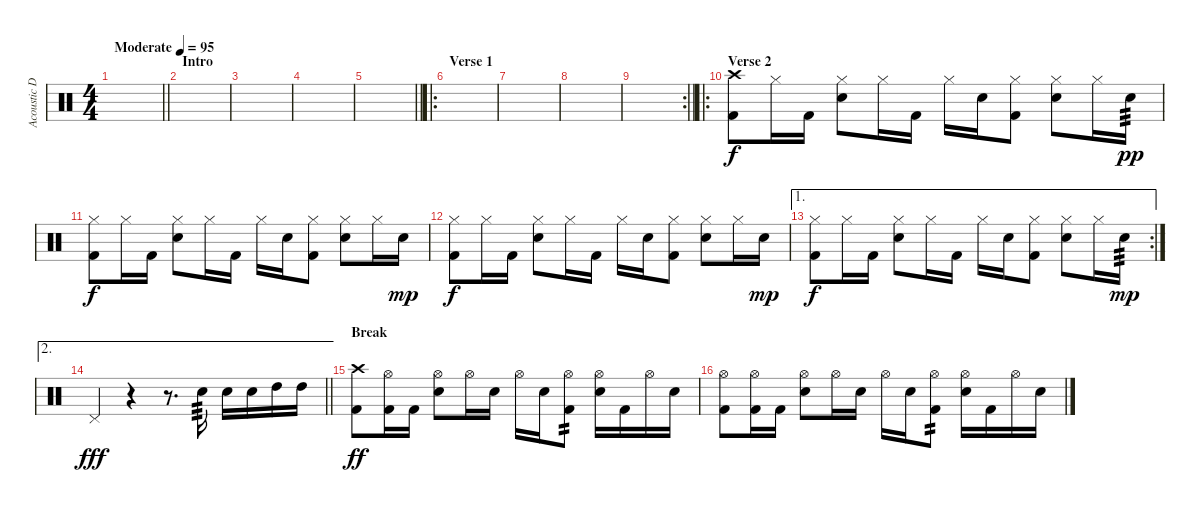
\track ("Acoustic Drums" "Acoustic D") {instrument percussion}
\staff {score}
\articulation defaults
\ts (4 4)
\tempo (95 "Moderate")
\clef neutral
\barLineRight lightlight
\ks c
|
\section ("" "Intro")
|
|
|
\barLineRight lightlight
|
\ro
\section ("" "Verse 1")
|
|
|
\rc 2
\barLineRight lightlight
|
\ro
\section ("" "Verse 2")
("Crash high (hit)" "Kick (hit) 2").8 "Hi-Hat (closed)".16 "Kick (hit) 2".16 ("Hi-Hat (closed)" "Electric Snare (hit)").8 "Hi-Hat (closed)".16 "Kick (hit) 2".16 "Hi-Hat (closed)".16 "Electric Snare (hit)".16 ("Hi-Hat (closed)" "Kick (hit) 2").8 ("Hi-Hat (closed)" "Electric Snare (hit)").8 "Hi-Hat (closed)".16 "Electric Snare (hit)".16{tp 3 dy pp} |
("Hi-Hat (closed)" "Kick (hit) 2").8{dy f} "Hi-Hat (closed)".16 "Kick (hit) 2".16 ("Hi-Hat (closed)" "Electric Snare (hit)").8 "Hi-Hat (closed)".16 "Kick (hit) 2".16 "Hi-Hat (closed)".16 "Electric Snare (hit)".16 ("Hi-Hat (closed)" "Kick (hit) 2").8 ("Hi-Hat (closed)" "Electric Snare (hit)").8 "Hi-Hat (closed)".16 "Electric Snare (hit)".16{dy mp} |
("Hi-Hat (closed)" "Kick (hit) 2").8{dy f} "Hi-Hat (closed)".16 "Kick (hit) 2".16 ("Hi-Hat (closed)" "Electric Snare (hit)").8 "Hi-Hat (closed)".16 "Kick (hit) 2".16 "Hi-Hat (closed)".16 "Electric Snare (hit)".16 ("Hi-Hat (closed)" "Kick (hit) 2").8 ("Hi-Hat (closed)" "Electric Snare (hit)").8 "Hi-Hat (closed)".16 "Electric Snare (hit)".16{dy mp} |
\ae 1
\rc 2
("Hi-Hat (closed)" "Kick (hit) 2").8{dy f} "Hi-Hat (closed)".16 "Kick (hit) 2".16 ("Hi-Hat (closed)" "Electric Snare (hit)").8 "Hi-Hat (closed)".16 "Kick (hit) 2".16 "Hi-Hat (closed)".16 "Electric Snare (hit)".16 ("Hi-Hat (closed)" "Kick (hit) 2").8 ("Hi-Hat (closed)" "Electric Snare (hit)").8 "Hi-Hat (closed)".16 "Electric Snare (hit)".16{tp 3 dy mp} |
\ae 2
\barLineRight lightlight "Pedal Hi-Hat (hit)".4{dy fff}
r.4 r.8{d} "Snare (hit) 2".16{tp 3} "Snare (hit) 2".16 "Snare (hit) 2".16 "High Tom (hit)".16 "High Tom (hit)".16 |
\section ("" "Break")
("Crash high (hit)" "Kick (hit) 2").8{dy ff} ("Hi-Hat (open)" "Kick (hit) 2").16 "Kick (hit) 2".16 ("Hi-Hat (open)" "Electric Snare (hit)").8 "Hi-Hat (open)".16 "Electric Snare (hit)".16 "Hi-Hat (open)".16 "Electric Snare (hit)".16 ("Hi-Hat (open)" "Kick (hit) 2").8{tp 2} ("Hi-Hat (open)" "Electric Snare (hit)").16 "Kick (hit) 2".16 "Hi-Hat (open)".16 "Electric Snare (hit)".16 |
("Hi-Hat (open)" "Kick (hit) 2").8 ("Hi-Hat (open)" "Kick (hit) 2").16 "Kick (hit) 2".16 ("Hi-Hat (open)" "Electric Snare (hit)").8 "Hi-Hat (open)".16 "Electric Snare (hit)".16 "Hi-Hat (open)".16 "Electric Snare (hit)".16 ("Hi-Hat (open)" "Kick (hit) 2").8{tp 2} ("Hi-Hat (open)" "Electric Snare (hit)").16 "Kick (hit) 2".16 "Hi-Hat (open)".16 "Electric Snare (hit)".16
